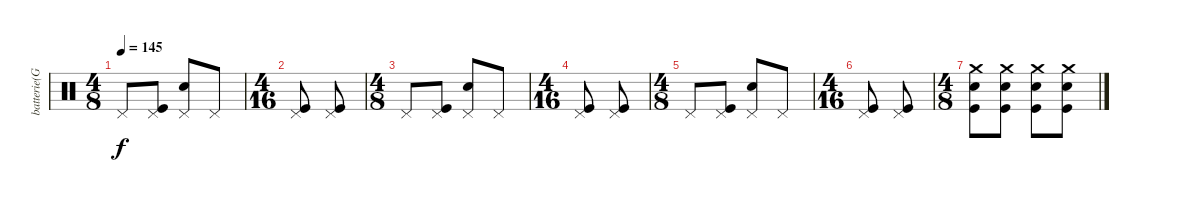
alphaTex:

\track ("batterie(Granberg)" "batterie(G") {instrument percussion}
\staff {score}
\articulation defaults
\ts (4 8)
\tempo 145
\clef neutral
\ks c "Pedal Hi-Hat (hit)".8{dy f}
("Pedal Hi-Hat (hit)" "Kick (hit)").8 ("Pedal Hi-Hat (hit)" "Snare (hit) 2").8 "Pedal Hi-Hat (hit)".8 |
\ts (4 16)
("Pedal Hi-Hat (hit)" "Kick (hit)").8 ("Pedal Hi-Hat (hit)" "Kick (hit)").8 |
\ts (4 8)
"Pedal Hi-Hat (hit)".8 ("Pedal Hi-Hat (hit)" "Kick (hit)").8 ("Pedal Hi-Hat (hit)" "Snare (hit) 2").8 "Pedal Hi-Hat (hit)".8 |
\ts (4 16)
("Pedal Hi-Hat (hit)" "Kick (hit)").8 ("Pedal Hi-Hat (hit)" "Kick (hit)").8 |
\ts (4 8)
"Pedal Hi-Hat (hit)".8 ("Pedal Hi-Hat (hit)" "Kick (hit)").8 ("Pedal Hi-Hat (hit)" "Snare (hit) 2").8 "Pedal Hi-Hat (hit)".8 |
\ts (4 16)
("Pedal Hi-Hat (hit)" "Kick (hit)").8 ("Pedal Hi-Hat (hit)" "Kick (hit)").8 |
\ts (4 8)
("Crash medium (hit)" "Snare (hit) 2" "Kick (hit)").8 ("Crash medium (hit)" "Snare (hit) 2" "Kick (hit)").8 ("Crash medium (hit)" "Snare (hit) 2" "Kick (hit)").8 ("Crash medium (hit)" "Snare (hit) 2" "Kick (hit)").8
